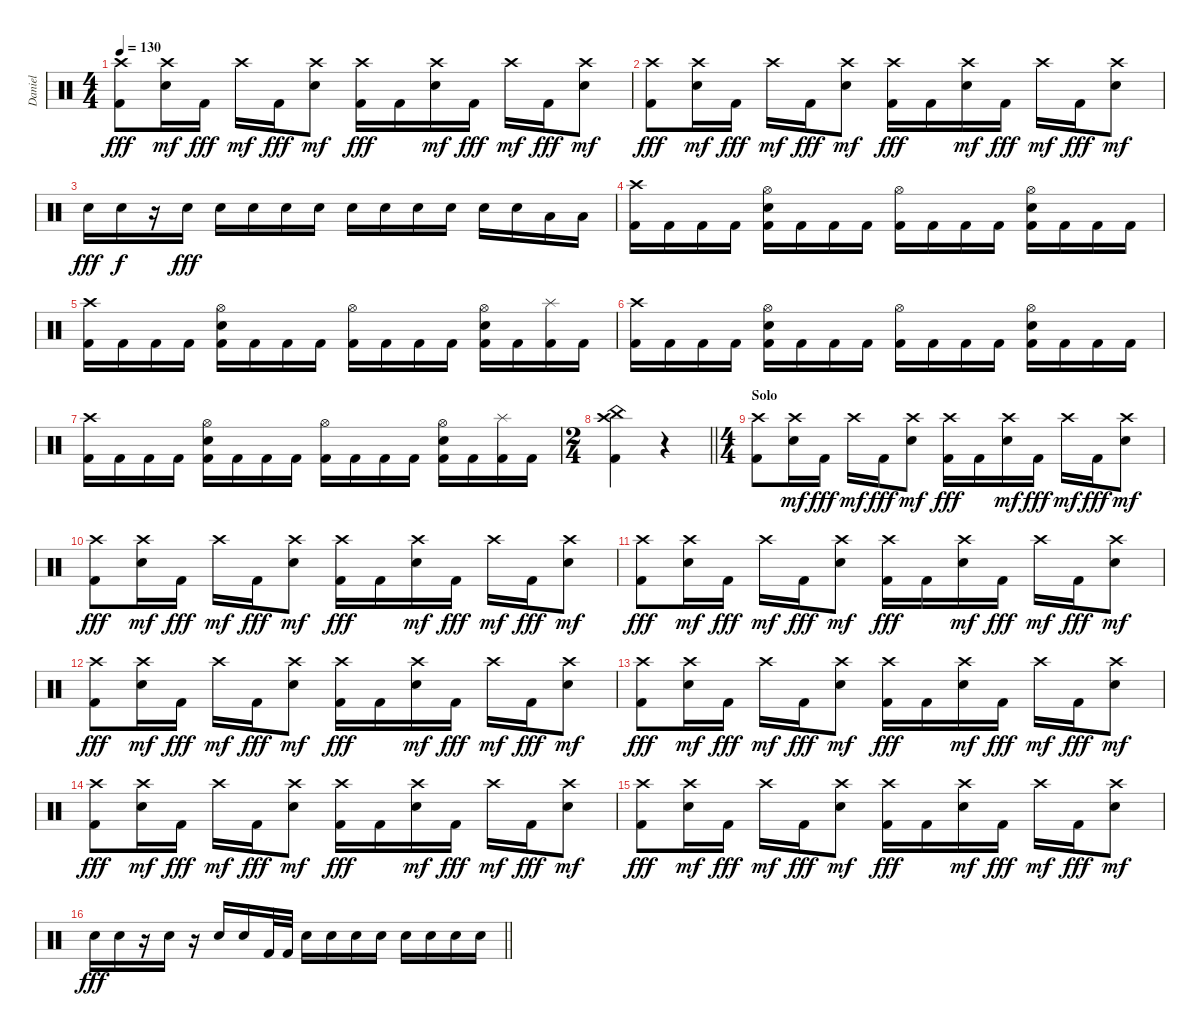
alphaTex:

\track ("Daniel" "Daniel") {instrument percussion}
\staff {score}
\articulation defaults
\ts (4 4)
\tempo 130
\clef neutral
\ks c
("Crash high (hit)" "Kick (hit) 2").8{dy fff} ("Crash high (hit)" "Electric Snare (hit)").16{dy mf} "Kick (hit) 2".16{dy fff} "Crash high (hit)".16{dy mf} "Kick (hit) 2".16{dy fff} ("Crash high (hit)" "Electric Snare (hit)").8{dy mf} ("Crash high (hit)" "Kick (hit) 2").16{dy fff} "Kick (hit) 2".16 ("Crash high (hit)" "Electric Snare (hit)").16{dy mf} "Kick (hit) 2".16{dy fff} "Crash high (hit)".16{dy mf} "Kick (hit) 2".16{dy fff} ("Crash high (hit)" "Electric Snare (hit)").8{dy mf} |
("Crash high (hit)" "Kick (hit) 2").8{dy fff} ("Crash high (hit)" "Electric Snare (hit)").16{dy mf} "Kick (hit) 2".16{dy fff} "Crash high (hit)".16{dy mf} "Kick (hit) 2".16{dy fff} ("Crash high (hit)" "Electric Snare (hit)").8{dy mf} ("Crash high (hit)" "Kick (hit) 2").16{dy fff} "Kick (hit) 2".16 ("Crash high (hit)" "Electric Snare (hit)").16{dy mf} "Kick (hit) 2".16{dy fff} "Crash high (hit)".16{dy mf} "Kick (hit) 2".16{dy fff} ("Crash high (hit)" "Electric Snare (hit)").8{dy mf} |
"Electric Snare (hit)".16{dy fff} "Electric Snare (hit)".16{dy f} r.16 "Electric Snare (hit)".16{dy fff} "Electric Snare (hit)".16 "Electric Snare (hit)".16 "Electric Snare (hit)".16 "Electric Snare (hit)".16 "Electric Snare (hit)".16 "Electric Snare (hit)".16 "Electric Snare (hit)".16 "Electric Snare (hit)".16 "Electric Snare (hit)".16 "Electric Snare (hit)".16 "Low Tom (hit)".16 "Low Tom (hit)".16 |
("Crash high (hit)" "Kick (hit) 2").16 "Kick (hit) 2".16 "Kick (hit) 2".16 "Kick (hit) 2".16 ("Hi-Hat (open)" "Electric Snare (hit)" "Kick (hit) 2").16 "Kick (hit) 2".16 "Kick (hit) 2".16 "Kick (hit) 2".16 ("Hi-Hat (open)" "Kick (hit) 2").16 "Kick (hit) 2".16 "Kick (hit) 2".16 "Kick (hit) 2".16 ("Hi-Hat (open)" "Electric Snare (hit)" "Kick (hit) 2").16 "Kick (hit) 2".16 "Kick (hit) 2".16 "Kick (hit) 2".16 |
("Crash high (hit)" "Kick (hit) 2").16 "Kick (hit) 2".16 "Kick (hit) 2".16 "Kick (hit) 2".16 ("Hi-Hat (open)" "Electric Snare (hit)" "Kick (hit) 2").16 "Kick (hit) 2".16 "Kick (hit) 2".16 "Kick (hit) 2".16 ("Hi-Hat (open)" "Kick (hit) 2").16 "Kick (hit) 2".16 "Kick (hit) 2".16 "Kick (hit) 2".16 ("Hi-Hat (open)" "Electric Snare (hit)" "Kick (hit) 2").16 "Kick (hit) 2".16 ("Splash (hit)" "Kick (hit) 2").16 "Kick (hit) 2".16 |
("Crash high (hit)" "Kick (hit) 2").16 "Kick (hit) 2".16 "Kick (hit) 2".16 "Kick (hit) 2".16 ("Hi-Hat (open)" "Electric Snare (hit)" "Kick (hit) 2").16 "Kick (hit) 2".16 "Kick (hit) 2".16 "Kick (hit) 2".16 ("Hi-Hat (open)" "Kick (hit) 2").16 "Kick (hit) 2".16 "Kick (hit) 2".16 "Kick (hit) 2".16 ("Hi-Hat (open)" "Electric Snare (hit)" "Kick (hit) 2").16 "Kick (hit) 2".16 "Kick (hit) 2".16 "Kick (hit) 2".16 |
("Crash high (hit)" "Kick (hit) 2").16 "Kick (hit) 2".16 "Kick (hit) 2".16 "Kick (hit) 2".16 ("Hi-Hat (open)" "Electric Snare (hit)" "Kick (hit) 2").16 "Kick (hit) 2".16 "Kick (hit) 2".16 "Kick (hit) 2".16 ("Hi-Hat (open)" "Kick (hit) 2").16 "Kick (hit) 2".16 "Kick (hit) 2".16 "Kick (hit) 2".16 ("Hi-Hat (open)" "Electric Snare (hit)" "Kick (hit) 2").16 "Kick (hit) 2".16 ("Splash (hit)" "Kick (hit) 2").16 "Kick (hit) 2".16 |
\ts (2 4)
\barLineRight lightlight
("China (hit)" "Crash high (hit)" "Kick (hit) 2").4 r.4 |
\ts (4 4)
\section ("" "Solo ")
("Crash high (hit)" "Kick (hit) 2").8 ("Crash high (hit)" "Electric Snare (hit)").16{dy mf} "Kick (hit) 2".16{dy fff} "Crash high (hit)".16{dy mf} "Kick (hit) 2".16{dy fff} ("Crash high (hit)" "Electric Snare (hit)").8{dy mf} ("Crash high (hit)" "Kick (hit) 2").16{dy fff} "Kick (hit) 2".16 ("Crash high (hit)" "Electric Snare (hit)").16{dy mf} "Kick (hit) 2".16{dy fff} "Crash high (hit)".16{dy mf} "Kick (hit) 2".16{dy fff} ("Crash high (hit)" "Electric Snare (hit)").8{dy mf} |
("Crash high (hit)" "Kick (hit) 2").8{dy fff} ("Crash high (hit)" "Electric Snare (hit)").16{dy mf} "Kick (hit) 2".16{dy fff} "Crash high (hit)".16{dy mf} "Kick (hit) 2".16{dy fff} ("Crash high (hit)" "Electric Snare (hit)").8{dy mf} ("Crash high (hit)" "Kick (hit) 2").16{dy fff} "Kick (hit) 2".16 ("Crash high (hit)" "Electric Snare (hit)").16{dy mf} "Kick (hit) 2".16{dy fff} "Crash high (hit)".16{dy mf} "Kick (hit) 2".16{dy fff} ("Crash high (hit)" "Electric Snare (hit)").8{dy mf} |
("Crash high (hit)" "Kick (hit) 2").8{dy fff} ("Crash high (hit)" "Electric Snare (hit)").16{dy mf} "Kick (hit) 2".16{dy fff} "Crash high (hit)".16{dy mf} "Kick (hit) 2".16{dy fff} ("Crash high (hit)" "Electric Snare (hit)").8{dy mf} ("Crash high (hit)" "Kick (hit) 2").16{dy fff} "Kick (hit) 2".16 ("Crash high (hit)" "Electric Snare (hit)").16{dy mf} "Kick (hit) 2".16{dy fff} "Crash high (hit)".16{dy mf} "Kick (hit) 2".16{dy fff} ("Crash high (hit)" "Electric Snare (hit)").8{dy mf} |
("Crash high (hit)" "Kick (hit) 2").8{dy fff} ("Crash high (hit)" "Electric Snare (hit)").16{dy mf} "Kick (hit) 2".16{dy fff} "Crash high (hit)".16{dy mf} "Kick (hit) 2".16{dy fff} ("Crash high (hit)" "Electric Snare (hit)").8{dy mf} ("Crash high (hit)" "Kick (hit) 2").16{dy fff} "Kick (hit) 2".16 ("Crash high (hit)" "Electric Snare (hit)").16{dy mf} "Kick (hit) 2".16{dy fff} "Crash high (hit)".16{dy mf} "Kick (hit) 2".16{dy fff} ("Crash high (hit)" "Electric Snare (hit)").8{dy mf} |
("Crash high (hit)" "Kick (hit) 2").8{dy fff} ("Crash high (hit)" "Electric Snare (hit)").16{dy mf} "Kick (hit) 2".16{dy fff} "Crash high (hit)".16{dy mf} "Kick (hit) 2".16{dy fff} ("Crash high (hit)" "Electric Snare (hit)").8{dy mf} ("Crash high (hit)" "Kick (hit) 2").16{dy fff} "Kick (hit) 2".16 ("Crash high (hit)" "Electric Snare (hit)").16{dy mf} "Kick (hit) 2".16{dy fff} "Crash high (hit)".16{dy mf} "Kick (hit) 2".16{dy fff} ("Crash high (hit)" "Electric Snare (hit)").8{dy mf} |
("Crash high (hit)" "Kick (hit) 2").8{dy fff} ("Crash high (hit)" "Electric Snare (hit)").16{dy mf} "Kick (hit) 2".16{dy fff} "Crash high (hit)".16{dy mf} "Kick (hit) 2".16{dy fff} ("Crash high (hit)" "Electric Snare (hit)").8{dy mf} ("Crash high (hit)" "Kick (hit) 2").16{dy fff} "Kick (hit) 2".16 ("Crash high (hit)" "Electric Snare (hit)").16{dy mf} "Kick (hit) 2".16{dy fff} "Crash high (hit)".16{dy mf} "Kick (hit) 2".16{dy fff} ("Crash high (hit)" "Electric Snare (hit)").8{dy mf} |
("Crash high (hit)" "Kick (hit) 2").8{dy fff} ("Crash high (hit)" "Electric Snare (hit)").16{dy mf} "Kick (hit) 2".16{dy fff} "Crash high (hit)".16{dy mf} "Kick (hit) 2".16{dy fff} ("Crash high (hit)" "Electric Snare (hit)").8{dy mf} ("Crash high (hit)" "Kick (hit) 2").16{dy fff} "Kick (hit) 2".16 ("Crash high (hit)" "Electric Snare (hit)").16{dy mf} "Kick (hit) 2".16{dy fff} "Crash high (hit)".16{dy mf} "Kick (hit) 2".16{dy fff} ("Crash high (hit)" "Electric Snare (hit)").8{dy mf} |
\barLineRight lightlight "Electric Snare (hit)".16{dy fff} "Electric Snare (hit)".16
r.16 "Electric Snare (hit)".16 r.16 "Electric Snare (hit)".16 "Electric Snare (hit)".16 "Kick (hit) 2".32 "Kick (hit) 2".32 "Electric Snare (hit)".16 "Electric Snare (hit)".16 "Electric Snare (hit)".16 "Electric Snare (hit)".16 "Electric Snare (hit)".16 "Electric Snare (hit)".16 "Electric Snare (hit)".16 "Electric Snare (hit)".16
